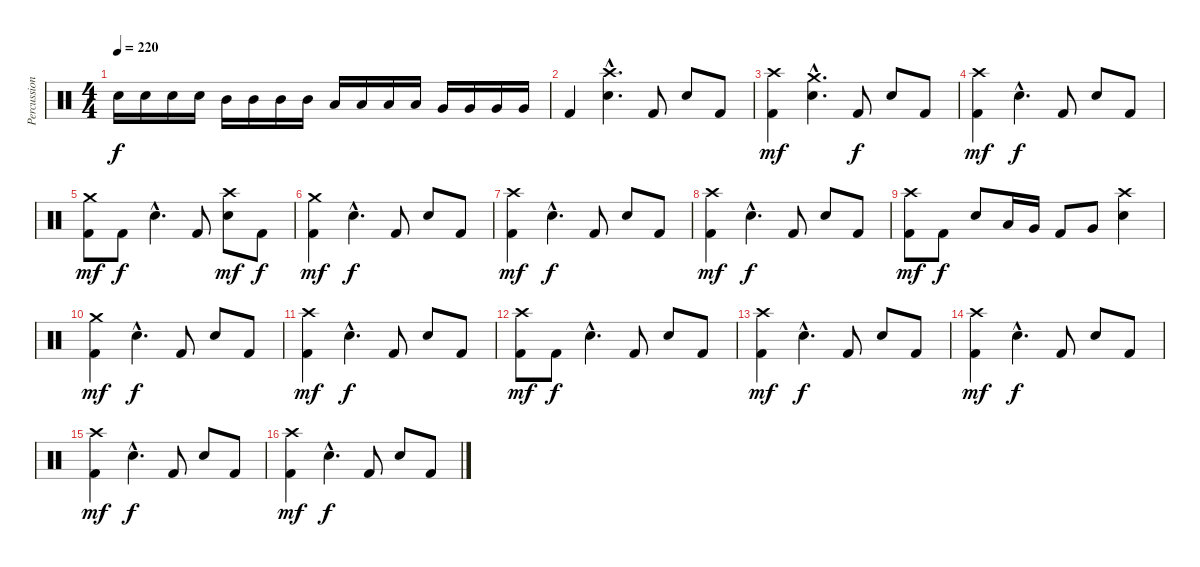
\track ("Percussion" "Percussion") {instrument percussion}
\staff {score}
\articulation defaults
\ts (4 4)
\tempo 220
\clef neutral
\ks c "Electric Snare (hit)".16{dy f} "Electric Snare (hit)".16 "Electric Snare (hit)".16 "Electric Snare (hit)".16 "Mid Tom (hit)".16 "Mid Tom (hit)".16 "Mid Tom (hit)".16 "Mid Tom (hit)".16 "Low Tom (hit)".16 "Low Tom (hit)".16 "Low Tom (hit)".16 "Low Tom (hit)".16 "Very Low Tom (hit)".16 "Very Low Tom (hit)".16 "Very Low Tom (hit)".16 "Very Low Tom (hit)".16
|
"Kick (hit) 2".4 ("Crash high (hit)"{hac} "Electric Snare (hit)"{hac}).4{d} "Kick (hit) 2".8 "Electric Snare (hit)".8 "Kick (hit) 2".8 |
("Crash high (hit)" "Kick (hit) 2").4{dy mf} ("Crash medium (hit)"{hac} "Electric Snare (hit)"{hac}).4{d} "Kick (hit) 2".8{dy f} "Electric Snare (hit)".8 "Kick (hit) 2".8 |
("Crash high (hit)" "Kick (hit) 2").4{dy mf} "Electric Snare (hit)"{hac}.4{d dy f} "Kick (hit) 2".8 "Electric Snare (hit)".8 "Kick (hit) 2".8 |
("Crash medium (hit)" "Kick (hit) 2").8{dy mf} "Kick (hit) 2".8{dy f} "Electric Snare (hit)"{hac}.4{d} "Kick (hit) 2".8 ("Crash high (hit)" "Electric Snare (hit)").8{dy mf} "Kick (hit) 2".8{dy f} |
("Crash medium (hit)" "Kick (hit) 2").4{dy mf} "Electric Snare (hit)"{hac}.4{d dy f} "Kick (hit) 2".8 "Electric Snare (hit)".8 "Kick (hit) 2".8 |
("Crash high (hit)" "Kick (hit) 2").4{dy mf} "Electric Snare (hit)"{hac}.4{d dy f} "Kick (hit) 2".8 "Electric Snare (hit)".8 "Kick (hit) 2".8 |
("Crash high (hit)" "Kick (hit) 2").4{dy mf} "Electric Snare (hit)"{hac}.4{d dy f} "Kick (hit) 2".8 "Electric Snare (hit)".8 "Kick (hit) 2".8 |
("Crash high (hit)" "Kick (hit) 2").8{dy mf} "Kick (hit) 2".8{dy f} "Electric Snare (hit)".8 "Low Tom (hit)".16 "Very Low Tom (hit)".16 "Kick (hit) 2".8 "Very Low Tom (hit)".8 ("Crash high (hit)" "Electric Snare (hit)").4 |
("Crash medium (hit)" "Kick (hit) 2").4{dy mf} "Electric Snare (hit)"{hac}.4{d dy f} "Kick (hit) 2".8 "Electric Snare (hit)".8 "Kick (hit) 2".8 |
("Crash high (hit)" "Kick (hit) 2").4{dy mf} "Electric Snare (hit)"{hac}.4{d dy f} "Kick (hit) 2".8 "Electric Snare (hit)".8 "Kick (hit) 2".8 |
("Crash high (hit)" "Kick (hit) 2").8{dy mf} "Kick (hit) 2".8{dy f} "Electric Snare (hit)"{hac}.4{d} "Kick (hit) 2".8 "Electric Snare (hit)".8 "Kick (hit) 2".8 |
("Crash high (hit)" "Kick (hit) 2").4{dy mf} "Electric Snare (hit)"{hac}.4{d dy f} "Kick (hit) 2".8 "Electric Snare (hit)".8 "Kick (hit) 2".8 |
("Crash high (hit)" "Kick (hit) 2").4{dy mf} "Electric Snare (hit)"{hac}.4{d dy f} "Kick (hit) 2".8 "Electric Snare (hit)".8 "Kick (hit) 2".8 |
("Crash high (hit)" "Kick (hit) 2").4{dy mf} "Electric Snare (hit)"{hac}.4{d dy f} "Kick (hit) 2".8 "Electric Snare (hit)".8 "Kick (hit) 2".8 |
("Crash high (hit)" "Kick (hit) 2").4{dy mf} "Electric Snare (hit)"{hac}.4{d dy f} "Kick (hit) 2".8 "Electric Snare (hit)".8 "Kick (hit) 2".8
